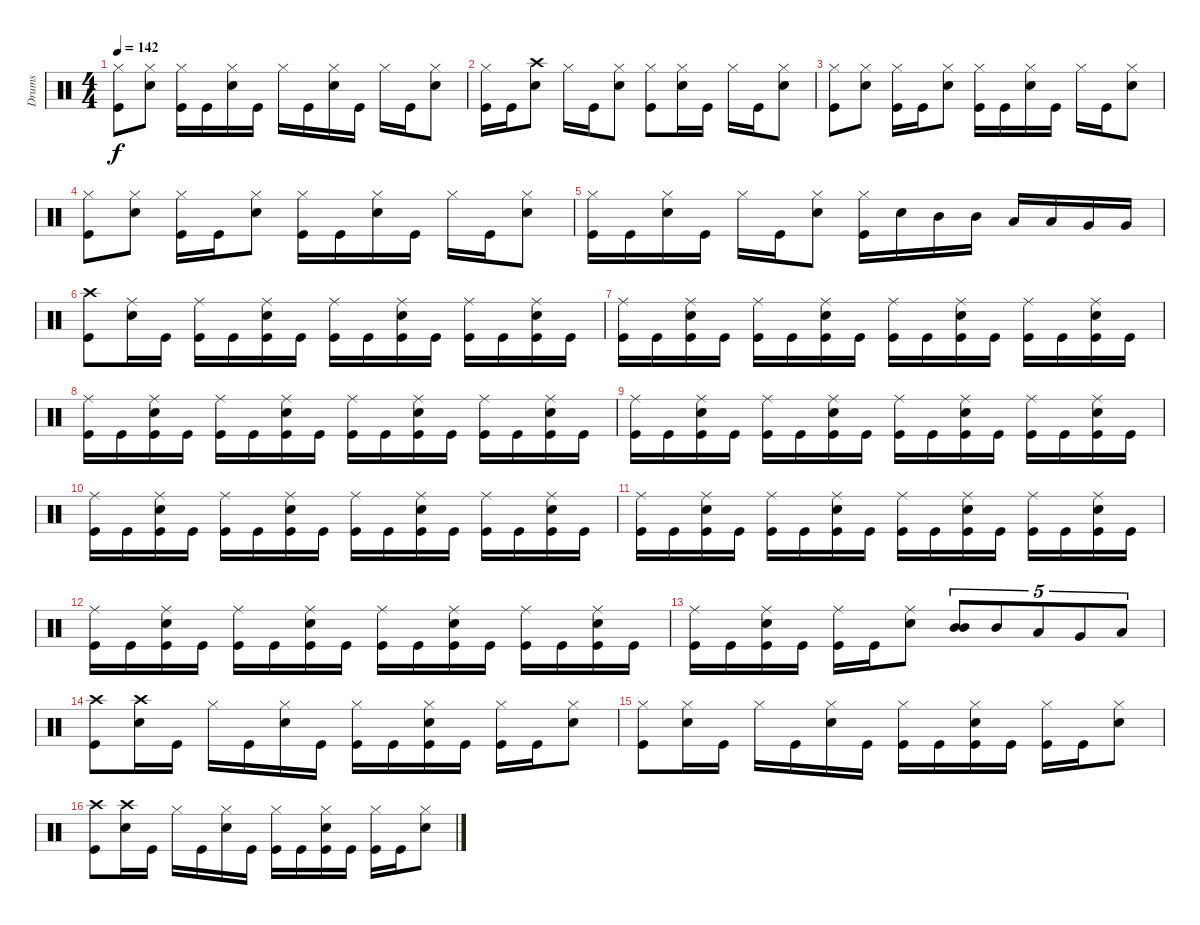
\track ("Drums" "Drums") {instrument percussion}
\staff {score}
\articulation defaults
\ts (4 4)
\tempo 142
\clef neutral
\ks c
("Hi-Hat (closed)" "Kick (hit)").8{dy f} ("Snare (hit) 2" "Hi-Hat (closed)").8 ("Kick (hit)" "Hi-Hat (closed)").16 "Kick (hit)".16 ("Hi-Hat (closed)" "Snare (hit) 2").16 "Kick (hit)".16 "Hi-Hat (closed)".16 "Kick (hit)".16 ("Snare (hit) 2" "Hi-Hat (closed)").16 "Kick (hit)".16 "Hi-Hat (closed)".16 "Kick (hit)".16 ("Snare (hit) 2" "Hi-Hat (closed)").8 |
("Hi-Hat (closed)" "Kick (hit)").16 "Kick (hit)".16 ("Crash high (hit)" "Snare (hit) 2").8 "Hi-Hat (closed)".16 "Kick (hit)".16 ("Hi-Hat (closed)" "Snare (hit) 2").8 ("Hi-Hat (closed)" "Kick (hit)").8 ("Snare (hit) 2" "Hi-Hat (closed)").16 "Kick (hit)".16 "Hi-Hat (closed)".16 "Kick (hit)".16 ("Hi-Hat (closed)" "Snare (hit) 2").8 |
("Hi-Hat (closed)" "Kick (hit)").8 ("Snare (hit) 2" "Hi-Hat (closed)").8 ("Kick (hit)" "Hi-Hat (closed)").16 "Kick (hit)".16 ("Hi-Hat (closed)" "Snare (hit) 2").8 ("Hi-Hat (closed)" "Kick (hit)").16 "Kick (hit)".16 ("Snare (hit) 2" "Hi-Hat (closed)").16 "Kick (hit)".16 "Hi-Hat (closed)".16 "Kick (hit)".16 ("Hi-Hat (closed)" "Snare (hit) 2").8 |
("Hi-Hat (closed)" "Kick (hit)").8 ("Snare (hit) 2" "Hi-Hat (closed)").8 ("Kick (hit)" "Hi-Hat (closed)").16 "Kick (hit)".16 ("Hi-Hat (closed)" "Snare (hit) 2").8 ("Hi-Hat (closed)" "Kick (hit)").16 "Kick (hit)".16 ("Snare (hit) 2" "Hi-Hat (closed)").16 "Kick (hit)".16 "Hi-Hat (closed)".16 "Kick (hit)".16 ("Hi-Hat (closed)" "Snare (hit) 2").8 |
("Hi-Hat (closed)" "Kick (hit)").16 "Kick (hit)".16 ("Snare (hit) 2" "Hi-Hat (closed)").16 "Kick (hit)".16 "Hi-Hat (closed)".16 "Kick (hit)".16 ("Hi-Hat (closed)" "Snare (hit) 2").8 ("Hi-Hat (closed)" "Kick (hit)").16 "Snare (hit) 2".16 "Mid Tom (hit)".16 "Mid Tom (hit)".16 "Low Tom (hit)".16 "Low Tom (hit)".16 "Very Low Tom (hit)".16 "Very Low Tom (hit)".16 |
("Crash high (hit)" "Kick (hit)").8 ("Ride (middle)" "Snare (hit) 2").16 "Kick (hit)".16 ("Ride (middle)" "Kick (hit)").16 "Kick (hit)".16 ("Ride (middle)" "Snare (hit) 2" "Kick (hit)").16 "Kick (hit)".16 ("Ride (middle)" "Kick (hit)").16 "Kick (hit)".16 ("Snare (hit) 2" "Ride (middle)" "Kick (hit)").16 "Kick (hit)".16 ("Ride (middle)" "Kick (hit)").16 "Kick (hit)".16 ("Snare (hit) 2" "Ride (middle)" "Kick (hit)").16 "Kick (hit)".16 |
("Ride (middle)" "Kick (hit)").16 "Kick (hit)".16 ("Snare (hit) 2" "Ride (middle)" "Kick (hit)").16 "Kick (hit)".16 ("Ride (middle)" "Kick (hit)").16 "Kick (hit)".16 ("Snare (hit) 2" "Ride (middle)" "Kick (hit)").16 "Kick (hit)".16 ("Ride (middle)" "Kick (hit)").16 "Kick (hit)".16 ("Snare (hit) 2" "Ride (middle)" "Kick (hit)").16 "Kick (hit)".16 ("Ride (middle)" "Kick (hit)").16 "Kick (hit)".16 ("Snare (hit) 2" "Ride (middle)" "Kick (hit)").16 "Kick (hit)".16 |
("Ride (middle)" "Kick (hit)").16 "Kick (hit)".16 ("Snare (hit) 2" "Ride (middle)" "Kick (hit)").16 "Kick (hit)".16 ("Ride (middle)" "Kick (hit)").16 "Kick (hit)".16 ("Snare (hit) 2" "Ride (middle)" "Kick (hit)").16 "Kick (hit)".16 ("Ride (middle)" "Kick (hit)").16 "Kick (hit)".16 ("Snare (hit) 2" "Ride (middle)" "Kick (hit)").16 "Kick (hit)".16 ("Ride (middle)" "Kick (hit)").16 "Kick (hit)".16 ("Snare (hit) 2" "Ride (middle)" "Kick (hit)").16 "Kick (hit)".16 |
("Ride (middle)" "Kick (hit)").16 "Kick (hit)".16 ("Snare (hit) 2" "Ride (middle)" "Kick (hit)").16 "Kick (hit)".16 ("Ride (middle)" "Kick (hit)").16 "Kick (hit)".16 ("Snare (hit) 2" "Ride (middle)" "Kick (hit)").16 "Kick (hit)".16 ("Ride (middle)" "Kick (hit)").16 "Kick (hit)".16 ("Snare (hit) 2" "Ride (middle)" "Kick (hit)").16 "Kick (hit)".16 ("Ride (middle)" "Kick (hit)").16 "Kick (hit)".16 ("Snare (hit) 2" "Ride (middle)" "Kick (hit)").16 "Kick (hit)".16 |
("Ride (middle)" "Kick (hit)").16 "Kick (hit)".16 ("Snare (hit) 2" "Ride (middle)" "Kick (hit)").16 "Kick (hit)".16 ("Ride (middle)" "Kick (hit)").16 "Kick (hit)".16 ("Snare (hit) 2" "Ride (middle)" "Kick (hit)").16 "Kick (hit)".16 ("Ride (middle)" "Kick (hit)").16 "Kick (hit)".16 ("Snare (hit) 2" "Ride (middle)" "Kick (hit)").16 "Kick (hit)".16 ("Ride (middle)" "Kick (hit)").16 "Kick (hit)".16 ("Snare (hit) 2" "Ride (middle)" "Kick (hit)").16 "Kick (hit)".16 |
("Ride (middle)" "Kick (hit)").16 "Kick (hit)".16 ("Snare (hit) 2" "Ride (middle)" "Kick (hit)").16 "Kick (hit)".16 ("Ride (middle)" "Kick (hit)").16 "Kick (hit)".16 ("Snare (hit) 2" "Ride (middle)" "Kick (hit)").16 "Kick (hit)".16 ("Ride (middle)" "Kick (hit)").16 "Kick (hit)".16 ("Snare (hit) 2" "Ride (middle)" "Kick (hit)").16 "Kick (hit)".16 ("Ride (middle)" "Kick (hit)").16 "Kick (hit)".16 ("Snare (hit) 2" "Ride (middle)" "Kick (hit)").16 "Kick (hit)".16 |
("Ride (middle)" "Kick (hit)").16 "Kick (hit)".16 ("Snare (hit) 2" "Ride (middle)" "Kick (hit)").16 "Kick (hit)".16 ("Ride (middle)" "Kick (hit)").16 "Kick (hit)".16 ("Snare (hit) 2" "Ride (middle)" "Kick (hit)").16 "Kick (hit)".16 ("Ride (middle)" "Kick (hit)").16 "Kick (hit)".16 ("Snare (hit) 2" "Ride (middle)" "Kick (hit)").16 "Kick (hit)".16 ("Ride (middle)" "Kick (hit)").16 "Kick (hit)".16 ("Snare (hit) 2" "Ride (middle)" "Kick (hit)").16 "Kick (hit)".16 |
("Ride (middle)" "Kick (hit)").16 "Kick (hit)".16 ("Snare (hit) 2" "Ride (middle)" "Kick (hit)").16 "Kick (hit)".16 ("Ride (middle)" "Kick (hit)").16 "Kick (hit)".16 ("Snare (hit) 2" "Ride (middle)").8 ("Mid Tom (hit)" "Mid Tom (hit)").8{tu (5 4)} "Mid Tom (hit)".8{tu (5 4)} "Low Tom (hit)".8{tu (5 4)} "Very Low Tom (hit)".8{tu (5 4)} "Low Floor Tom (hit)".8{tu (5 4)} |
("Crash high (hit)" "Kick (hit)").8 ("Crash high (hit)" "Snare (hit) 2").16 "Kick (hit)".16 "Hi-Hat (closed)".16 "Kick (hit)".16 ("Snare (hit) 2" "Hi-Hat (closed)").16 "Kick (hit)".16 ("Kick (hit)" "Hi-Hat (closed)").16 "Kick (hit)".16 ("Kick (hit)" "Snare (hit) 2" "Hi-Hat (closed)").16 "Kick (hit)".16 ("Kick (hit)" "Hi-Hat (closed)").16 "Kick (hit)".16 ("Snare (hit) 2" "Hi-Hat (closed)").8 |
("Hi-Hat (closed)" "Kick (hit)").8 ("Snare (hit) 2" "Hi-Hat (closed)").16 "Kick (hit)".16 "Hi-Hat (closed)".16 "Kick (hit)".16 ("Snare (hit) 2" "Hi-Hat (closed)").16 "Kick (hit)".16 ("Hi-Hat (closed)" "Kick (hit)").16 "Kick (hit)".16 ("Kick (hit)" "Snare (hit) 2" "Hi-Hat (closed)").16 "Kick (hit)".16 ("Kick (hit)" "Hi-Hat (closed)").16 "Kick (hit)".16 ("Hi-Hat (closed)" "Snare (hit) 2").8 |
("Crash high (hit)" "Kick (hit)").8 ("Crash high (hit)" "Snare (hit) 2").16 "Kick (hit)".16 "Hi-Hat (closed)".16 "Kick (hit)".16 ("Snare (hit) 2" "Hi-Hat (closed)").16 "Kick (hit)".16 ("Hi-Hat (closed)" "Kick (hit)").16 "Kick (hit)".16 ("Snare (hit) 2" "Hi-Hat (closed)" "Kick (hit)").16 "Kick (hit)".16 ("Hi-Hat (closed)" "Kick (hit)").16 "Kick (hit)".16 ("Snare (hit) 2" "Hi-Hat (closed)").8
